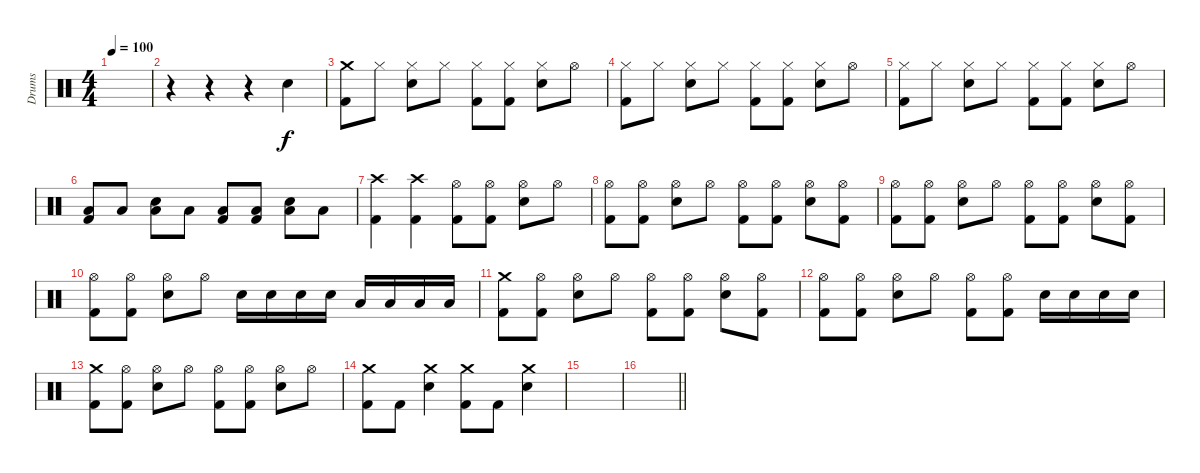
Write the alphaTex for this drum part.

\track ("Drums" "Drums") {instrument percussion}
\staff {score}
\articulation defaults
\ts (4 4)
\tempo 100
\clef neutral
\ks c
|
r.4 r.4 r.4 "Snare (hit) 2".4 |
("Crash medium (hit)" "Kick (hit) 2").8 "Hi-Hat (closed)".8 ("Hi-Hat (closed)" "Snare (hit) 2").8 "Hi-Hat (closed)".8 ("Hi-Hat (closed)" "Kick (hit) 2").8 ("Hi-Hat (closed)" "Kick (hit) 2").8 ("Hi-Hat (closed)" "Snare (hit) 2").8 "Hi-Hat (open)".8 |
("Hi-Hat (closed)" "Kick (hit) 2").8 "Hi-Hat (closed)".8 ("Hi-Hat (closed)" "Snare (hit) 2").8 "Hi-Hat (closed)".8 ("Hi-Hat (closed)" "Kick (hit) 2").8 ("Hi-Hat (closed)" "Kick (hit) 2").8 ("Hi-Hat (closed)" "Snare (hit) 2").8 "Hi-Hat (open)".8 |
("Hi-Hat (closed)" "Kick (hit) 2").8 "Hi-Hat (closed)".8 ("Hi-Hat (closed)" "Snare (hit) 2").8 "Hi-Hat (closed)".8 ("Hi-Hat (closed)" "Kick (hit) 2").8 ("Hi-Hat (closed)" "Kick (hit) 2").8 ("Hi-Hat (closed)" "Snare (hit) 2").8 "Hi-Hat (open)".8 |
("Low Tom (hit)" "Kick (hit) 2").8 "Low Tom (hit)".8 ("Snare (hit) 2" "Low Tom (hit)").8 "Low Tom (hit)".8 ("Low Tom (hit)" "Kick (hit) 2").8 ("Low Tom (hit)" "Kick (hit) 2").8 ("Snare (hit) 2" "Low Tom (hit)").8 "Low Tom (hit)".8 |
("Crash high (hit)" "Kick (hit) 2").4 ("Crash high (hit)" "Kick (hit) 2").4 ("Hi-Hat (open)" "Kick (hit) 2").8 ("Hi-Hat (open)" "Kick (hit) 2").8 ("Hi-Hat (open)" "Snare (hit) 2").8 "Hi-Hat (open)".8 |
("Hi-Hat (open)" "Kick (hit) 2").8 ("Hi-Hat (open)" "Kick (hit) 2").8 ("Hi-Hat (open)" "Snare (hit) 2").8 "Hi-Hat (open)".8 ("Hi-Hat (open)" "Kick (hit) 2").8 ("Hi-Hat (open)" "Kick (hit) 2").8 ("Hi-Hat (open)" "Snare (hit) 2").8 ("Hi-Hat (open)" "Kick (hit) 2").8 |
("Hi-Hat (open)" "Kick (hit) 2").8 ("Hi-Hat (open)" "Kick (hit) 2").8 ("Hi-Hat (open)" "Snare (hit) 2").8 "Hi-Hat (open)".8 ("Hi-Hat (open)" "Kick (hit) 2").8 ("Hi-Hat (open)" "Kick (hit) 2").8 ("Hi-Hat (open)" "Snare (hit) 2").8 ("Hi-Hat (open)" "Kick (hit) 2").8 |
("Hi-Hat (open)" "Kick (hit) 2").8 ("Hi-Hat (open)" "Kick (hit) 2").8 ("Hi-Hat (open)" "Snare (hit) 2").8 "Hi-Hat (open)".8 "Snare (hit) 2".16 "Snare (hit) 2".16 "Snare (hit) 2".16 "Snare (hit) 2".16 "Low Tom (hit)".16 "Low Tom (hit)".16 "Low Tom (hit)".16 "Low Tom (hit)".16 |
("Crash medium (hit)" "Kick (hit) 2").8 ("Hi-Hat (open)" "Kick (hit) 2").8 ("Hi-Hat (open)" "Snare (hit) 2").8 "Hi-Hat (open)".8 ("Hi-Hat (open)" "Kick (hit) 2").8 ("Hi-Hat (open)" "Kick (hit) 2").8 ("Hi-Hat (open)" "Snare (hit) 2").8 ("Hi-Hat (open)" "Kick (hit) 2").8 |
("Hi-Hat (open)" "Kick (hit) 2").8 ("Hi-Hat (open)" "Kick (hit) 2").8 ("Hi-Hat (open)" "Snare (hit) 2").8 "Hi-Hat (open)".8 ("Hi-Hat (open)" "Kick (hit) 2").8 ("Hi-Hat (open)" "Kick (hit) 2").8 "Snare (hit) 2".16 "Snare (hit) 2".16 "Snare (hit) 2".16 "Snare (hit) 2".16 |
("Crash medium (hit)" "Kick (hit) 2").8 ("Hi-Hat (open)" "Kick (hit) 2").8 ("Hi-Hat (open)" "Snare (hit) 2").8 "Hi-Hat (open)".8 ("Hi-Hat (open)" "Kick (hit) 2").8 ("Hi-Hat (open)" "Kick (hit) 2").8 ("Hi-Hat (open)" "Snare (hit) 2").8 "Hi-Hat (open)".8 |
("Crash medium (hit)" "Kick (hit) 2").8 "Kick (hit) 2".8 ("Crash medium (hit)" "Snare (hit) 2").4 ("Crash medium (hit)" "Kick (hit) 2").8 "Kick (hit) 2".8 ("Crash medium (hit)" "Snare (hit) 2").4 |
|
\barLineRight lightlight
